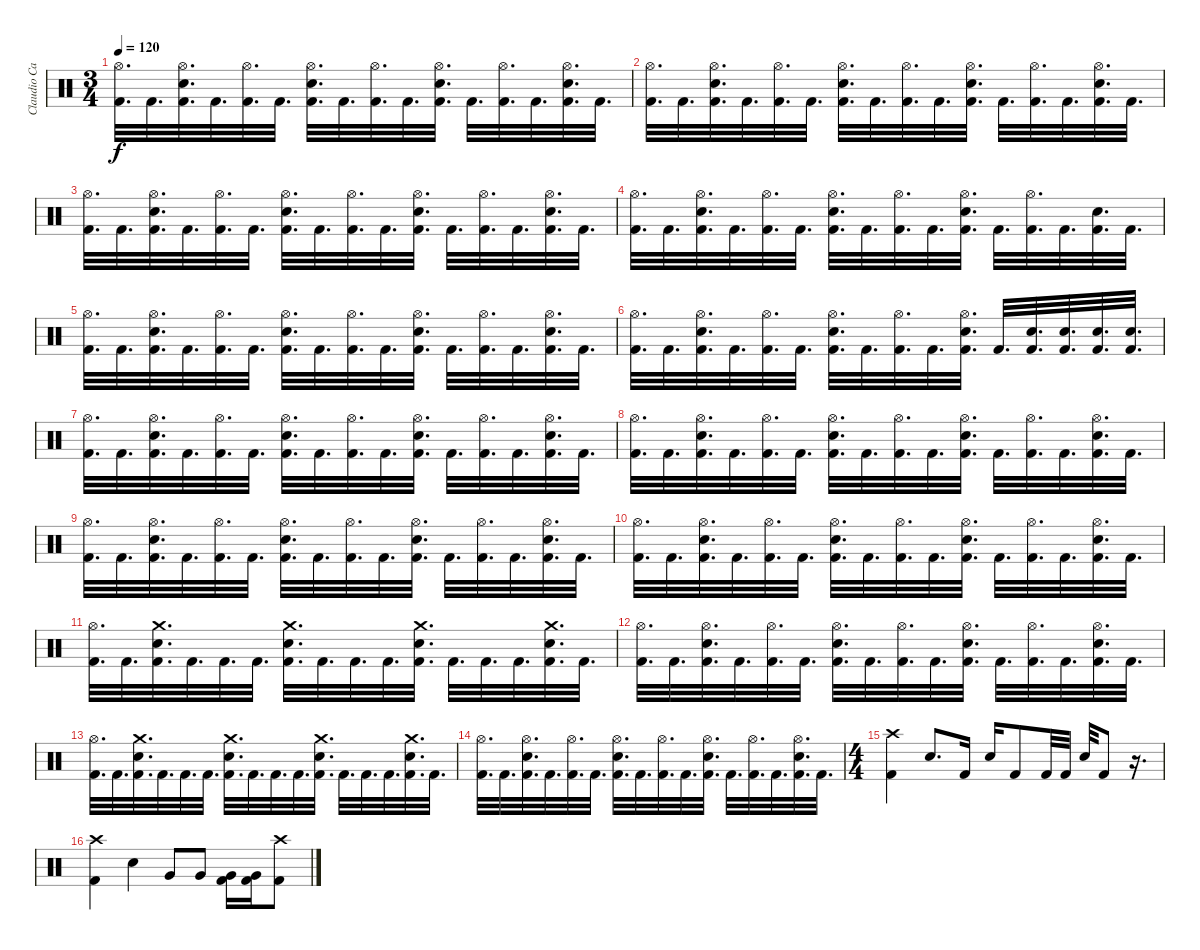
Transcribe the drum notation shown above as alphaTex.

\track ("Claudio Cardacci" "Claudio Ca") {instrument percussion}
\staff {score}
\articulation defaults
\ts (3 4)
\tempo 120
\clef neutral
\ks c
("Hi-Hat (open)" "Kick (hit) 2").32{d dy f} "Kick (hit) 2".32{d} ("Snare (hit) 2" "Hi-Hat (open)" "Kick (hit) 2").32{d} "Kick (hit) 2".32{d} ("Hi-Hat (open)" "Kick (hit) 2").32{d} "Kick (hit) 2".32{d} ("Snare (hit) 2" "Hi-Hat (open)" "Kick (hit) 2").32{d} "Kick (hit) 2".32{d} ("Hi-Hat (open)" "Kick (hit) 2").32{d} "Kick (hit) 2".32{d} ("Snare (hit) 2" "Hi-Hat (open)" "Kick (hit) 2").32{d} "Kick (hit) 2".32{d} ("Hi-Hat (open)" "Kick (hit) 2").32{d} "Kick (hit) 2".32{d} ("Snare (hit) 2" "Hi-Hat (open)" "Kick (hit) 2").32{d} "Kick (hit) 2".32{d} |
("Hi-Hat (open)" "Kick (hit) 2").32{d} "Kick (hit) 2".32{d} ("Snare (hit) 2" "Hi-Hat (open)" "Kick (hit) 2").32{d} "Kick (hit) 2".32{d} ("Hi-Hat (open)" "Kick (hit) 2").32{d} "Kick (hit) 2".32{d} ("Snare (hit) 2" "Hi-Hat (open)" "Kick (hit) 2").32{d} "Kick (hit) 2".32{d} ("Hi-Hat (open)" "Kick (hit) 2").32{d} "Kick (hit) 2".32{d} ("Snare (hit) 2" "Hi-Hat (open)" "Kick (hit) 2").32{d} "Kick (hit) 2".32{d} ("Hi-Hat (open)" "Kick (hit) 2").32{d} "Kick (hit) 2".32{d} ("Snare (hit) 2" "Hi-Hat (open)" "Kick (hit) 2").32{d} "Kick (hit) 2".32{d} |
("Hi-Hat (open)" "Kick (hit) 2").32{d} "Kick (hit) 2".32{d} ("Snare (hit) 2" "Hi-Hat (open)" "Kick (hit) 2").32{d} "Kick (hit) 2".32{d} ("Hi-Hat (open)" "Kick (hit) 2").32{d} "Kick (hit) 2".32{d} ("Snare (hit) 2" "Hi-Hat (open)" "Kick (hit) 2").32{d} "Kick (hit) 2".32{d} ("Hi-Hat (open)" "Kick (hit) 2").32{d} "Kick (hit) 2".32{d} ("Snare (hit) 2" "Hi-Hat (open)" "Kick (hit) 2").32{d} "Kick (hit) 2".32{d} ("Hi-Hat (open)" "Kick (hit) 2").32{d} "Kick (hit) 2".32{d} ("Snare (hit) 2" "Hi-Hat (open)" "Kick (hit) 2").32{d} "Kick (hit) 2".32{d} |
("Hi-Hat (open)" "Kick (hit) 2").32{d} "Kick (hit) 2".32{d} ("Snare (hit) 2" "Hi-Hat (open)" "Kick (hit) 2").32{d} "Kick (hit) 2".32{d} ("Hi-Hat (open)" "Kick (hit) 2").32{d} "Kick (hit) 2".32{d} ("Snare (hit) 2" "Hi-Hat (open)" "Kick (hit) 2").32{d} "Kick (hit) 2".32{d} ("Hi-Hat (open)" "Kick (hit) 2").32{d} "Kick (hit) 2".32{d} ("Snare (hit) 2" "Hi-Hat (open)" "Kick (hit) 2").32{d} "Kick (hit) 2".32{d} ("Hi-Hat (open)" "Kick (hit) 2").32{d} "Kick (hit) 2".32{d} ("Snare (hit) 2" "Kick (hit) 2").32{d} "Kick (hit) 2".32{d} |
("Hi-Hat (open)" "Kick (hit) 2").32{d} "Kick (hit) 2".32{d} ("Snare (hit) 2" "Hi-Hat (open)" "Kick (hit) 2").32{d} "Kick (hit) 2".32{d} ("Hi-Hat (open)" "Kick (hit) 2").32{d} "Kick (hit) 2".32{d} ("Snare (hit) 2" "Hi-Hat (open)" "Kick (hit) 2").32{d} "Kick (hit) 2".32{d} ("Hi-Hat (open)" "Kick (hit) 2").32{d} "Kick (hit) 2".32{d} ("Snare (hit) 2" "Hi-Hat (open)" "Kick (hit) 2").32{d} "Kick (hit) 2".32{d} ("Hi-Hat (open)" "Kick (hit) 2").32{d} "Kick (hit) 2".32{d} ("Snare (hit) 2" "Hi-Hat (open)" "Kick (hit) 2").32{d} "Kick (hit) 2".32{d} |
("Hi-Hat (open)" "Kick (hit) 2").32{d} "Kick (hit) 2".32{d} ("Snare (hit) 2" "Hi-Hat (open)" "Kick (hit) 2").32{d} "Kick (hit) 2".32{d} ("Hi-Hat (open)" "Kick (hit) 2").32{d} "Kick (hit) 2".32{d} ("Snare (hit) 2" "Hi-Hat (open)" "Kick (hit) 2").32{d} "Kick (hit) 2".32{d} ("Hi-Hat (open)" "Kick (hit) 2").32{d} "Kick (hit) 2".32{d} ("Snare (hit) 2" "Hi-Hat (open)" "Kick (hit) 2").32{d} "Kick (hit) 2".32{d} ("Snare (hit) 2" "Kick (hit) 2").32{d} ("Snare (hit) 2" "Kick (hit) 2").32{d} ("Snare (hit) 2" "Kick (hit) 2").32{d} ("Snare (hit) 2" "Kick (hit) 2").32{d} |
("Hi-Hat (open)" "Kick (hit) 2").32{d} "Kick (hit) 2".32{d} ("Snare (hit) 2" "Hi-Hat (open)" "Kick (hit) 2").32{d} "Kick (hit) 2".32{d} ("Hi-Hat (open)" "Kick (hit) 2").32{d} "Kick (hit) 2".32{d} ("Snare (hit) 2" "Hi-Hat (open)" "Kick (hit) 2").32{d} "Kick (hit) 2".32{d} ("Hi-Hat (open)" "Kick (hit) 2").32{d} "Kick (hit) 2".32{d} ("Snare (hit) 2" "Hi-Hat (open)" "Kick (hit) 2").32{d} "Kick (hit) 2".32{d} ("Hi-Hat (open)" "Kick (hit) 2").32{d} "Kick (hit) 2".32{d} ("Snare (hit) 2" "Hi-Hat (open)" "Kick (hit) 2").32{d} "Kick (hit) 2".32{d} |
("Hi-Hat (open)" "Kick (hit) 2").32{d} "Kick (hit) 2".32{d} ("Snare (hit) 2" "Hi-Hat (open)" "Kick (hit) 2").32{d} "Kick (hit) 2".32{d} ("Hi-Hat (open)" "Kick (hit) 2").32{d} "Kick (hit) 2".32{d} ("Snare (hit) 2" "Hi-Hat (open)" "Kick (hit) 2").32{d} "Kick (hit) 2".32{d} ("Hi-Hat (open)" "Kick (hit) 2").32{d} "Kick (hit) 2".32{d} ("Snare (hit) 2" "Hi-Hat (open)" "Kick (hit) 2").32{d} "Kick (hit) 2".32{d} ("Hi-Hat (open)" "Kick (hit) 2").32{d} "Kick (hit) 2".32{d} ("Snare (hit) 2" "Hi-Hat (open)" "Kick (hit) 2").32{d} "Kick (hit) 2".32{d} |
("Hi-Hat (open)" "Kick (hit) 2").32{d} "Kick (hit) 2".32{d} ("Snare (hit) 2" "Hi-Hat (open)" "Kick (hit) 2").32{d} "Kick (hit) 2".32{d} ("Hi-Hat (open)" "Kick (hit) 2").32{d} "Kick (hit) 2".32{d} ("Snare (hit) 2" "Hi-Hat (open)" "Kick (hit) 2").32{d} "Kick (hit) 2".32{d} ("Hi-Hat (open)" "Kick (hit) 2").32{d} "Kick (hit) 2".32{d} ("Snare (hit) 2" "Hi-Hat (open)" "Kick (hit) 2").32{d} "Kick (hit) 2".32{d} ("Hi-Hat (open)" "Kick (hit) 2").32{d} "Kick (hit) 2".32{d} ("Snare (hit) 2" "Hi-Hat (open)" "Kick (hit) 2").32{d} "Kick (hit) 2".32{d} |
("Hi-Hat (open)" "Kick (hit) 2").32{d} "Kick (hit) 2".32{d} ("Snare (hit) 2" "Hi-Hat (open)" "Kick (hit) 2").32{d} "Kick (hit) 2".32{d} ("Hi-Hat (open)" "Kick (hit) 2").32{d} "Kick (hit) 2".32{d} ("Snare (hit) 2" "Hi-Hat (open)" "Kick (hit) 2").32{d} "Kick (hit) 2".32{d} ("Hi-Hat (open)" "Kick (hit) 2").32{d} "Kick (hit) 2".32{d} ("Snare (hit) 2" "Hi-Hat (open)" "Kick (hit) 2").32{d} "Kick (hit) 2".32{d} ("Hi-Hat (open)" "Kick (hit) 2").32{d} "Kick (hit) 2".32{d} ("Snare (hit) 2" "Hi-Hat (open)" "Kick (hit) 2").32{d} "Kick (hit) 2".32{d} |
("Hi-Hat (open)" "Kick (hit) 2").32{d} "Kick (hit) 2".32{d} ("Crash medium (hit)" "Snare (hit) 2" "Kick (hit) 2").32{d} "Kick (hit) 2".32{d} "Kick (hit) 2".32{d} "Kick (hit) 2".32{d} ("Crash medium (hit)" "Snare (hit) 2" "Kick (hit) 2").32{d} "Kick (hit) 2".32{d} "Kick (hit) 2".32{d} "Kick (hit) 2".32{d} ("Crash medium (hit)" "Snare (hit) 2" "Kick (hit) 2").32{d} "Kick (hit) 2".32{d} "Kick (hit) 2".32{d} "Kick (hit) 2".32{d} ("Crash medium (hit)" "Snare (hit) 2" "Kick (hit) 2").32{d} "Kick (hit) 2".32{d} |
("Hi-Hat (open)" "Kick (hit) 2").32{d} "Kick (hit) 2".32{d} ("Snare (hit) 2" "Hi-Hat (open)" "Kick (hit) 2").32{d} "Kick (hit) 2".32{d} ("Hi-Hat (open)" "Kick (hit) 2").32{d} "Kick (hit) 2".32{d} ("Snare (hit) 2" "Hi-Hat (open)" "Kick (hit) 2").32{d} "Kick (hit) 2".32{d} ("Hi-Hat (open)" "Kick (hit) 2").32{d} "Kick (hit) 2".32{d} ("Snare (hit) 2" "Hi-Hat (open)" "Kick (hit) 2").32{d} "Kick (hit) 2".32{d} ("Hi-Hat (open)" "Kick (hit) 2").32{d} "Kick (hit) 2".32{d} ("Snare (hit) 2" "Hi-Hat (open)" "Kick (hit) 2").32{d} "Kick (hit) 2".32{d} |
("Hi-Hat (open)" "Kick (hit) 2").32{d} "Kick (hit) 2".32{d} ("Crash medium (hit)" "Snare (hit) 2" "Kick (hit) 2").32{d} "Kick (hit) 2".32{d} "Kick (hit) 2".32{d} "Kick (hit) 2".32{d} ("Crash medium (hit)" "Snare (hit) 2" "Kick (hit) 2").32{d} "Kick (hit) 2".32{d} "Kick (hit) 2".32{d} "Kick (hit) 2".32{d} ("Crash medium (hit)" "Snare (hit) 2" "Kick (hit) 2").32{d} "Kick (hit) 2".32{d} "Kick (hit) 2".32{d} "Kick (hit) 2".32{d} ("Crash medium (hit)" "Snare (hit) 2" "Kick (hit) 2").32{d} "Kick (hit) 2".32{d} |
("Hi-Hat (open)" "Kick (hit) 2").32{d} "Kick (hit) 2".32{d} ("Snare (hit) 2" "Hi-Hat (open)" "Kick (hit) 2").32{d} "Kick (hit) 2".32{d} ("Hi-Hat (open)" "Kick (hit) 2").32{d} "Kick (hit) 2".32{d} ("Snare (hit) 2" "Hi-Hat (open)" "Kick (hit) 2").32{d} "Kick (hit) 2".32{d} ("Hi-Hat (open)" "Kick (hit) 2").32{d} "Kick (hit) 2".32{d} ("Snare (hit) 2" "Hi-Hat (open)" "Kick (hit) 2").32{d} "Kick (hit) 2".32{d} ("Hi-Hat (open)" "Kick (hit) 2").32{d} "Kick (hit) 2".32{d} ("Snare (hit) 2" "Hi-Hat (open)" "Kick (hit) 2").32{d} "Kick (hit) 2".32{d} |
\ts (4 4)
("Crash high (hit)" "Kick (hit) 2").4 "Snare (hit) 2".8{d} "Kick (hit) 2".16 "Snare (hit) 2".16 "Kick (hit) 2".8 "Kick (hit) 2".32 "Kick (hit) 2".32 "Snare (hit) 2".32 "Kick (hit) 2".8 r.16{d} |
("Crash high (hit)" "Kick (hit) 2").4 "Snare (hit) 2".4 "Very Low Tom (hit)".8 "Very Low Tom (hit)".8 ("Very Low Tom (hit)" "Kick (hit) 2").16 ("Very Low Tom (hit)" "Kick (hit) 2").16 ("Crash high (hit)" "Kick (hit) 2").8
